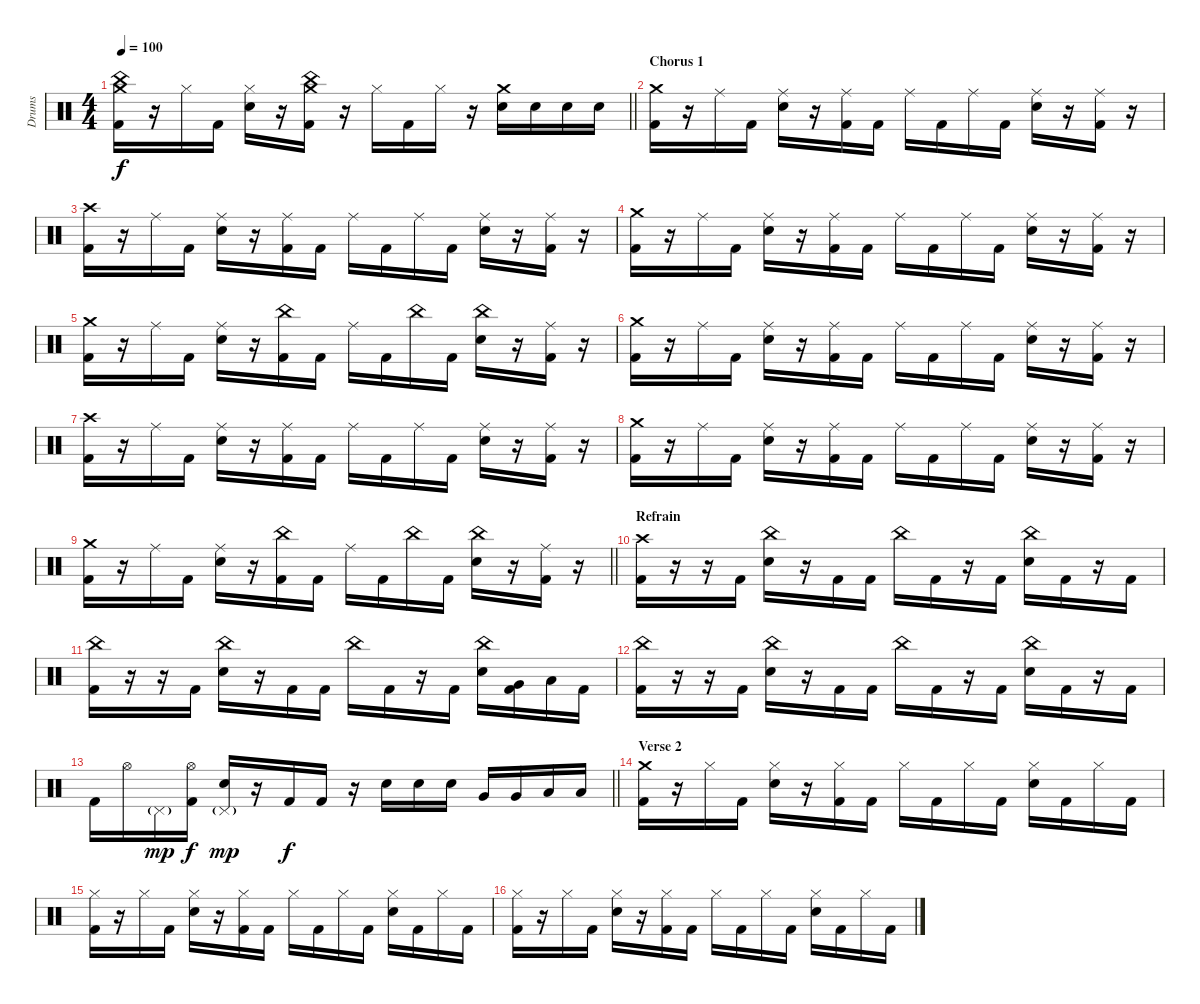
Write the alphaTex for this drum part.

\track ("Drums" "Drums") {instrument percussion}
\staff {score}
\articulation defaults
\ts (4 4)
\tempo 100
\clef neutral
\barLineRight lightlight
\ks c
("Crash medium (hit)" "China (hit)" "Kick (hit) 2").16{dy f} r.16 "Hi-Hat (closed)".16 "Kick (hit) 2".16 ("Hi-Hat (closed)" "Electric Snare (hit)").16 r.16 ("Crash medium (hit)" "China (hit)" "Kick (hit) 2").16 r.16 "Hi-Hat (closed)".16 "Kick (hit) 2".16 "Hi-Hat (closed)".16 r.16 ("Crash medium (hit)" "Electric Snare (hit)").16 "Electric Snare (hit)".16 "Electric Snare (hit)".16 "Electric Snare (hit)".16 |
\section ("" "Chorus 1")
("Crash medium (hit)" "Kick (hit) 2").16 r.16 "Ride (middle)".16 "Kick (hit) 2".16 ("Ride (middle)" "Electric Snare (hit)").16 r.16 ("Ride (middle)" "Kick (hit) 2").16 "Kick (hit) 2".16 "Ride (middle)".16 "Kick (hit) 2".16 "Ride (middle)".16 "Kick (hit) 2".16 ("Ride (middle)" "Electric Snare (hit)").16 r.16 ("Ride (middle)" "Kick (hit) 2").16 r.16 |
("Crash high (hit)" "Kick (hit) 2").16 r.16 "Ride (middle)".16 "Kick (hit) 2".16 ("Ride (middle)" "Electric Snare (hit)").16 r.16 ("Ride (middle)" "Kick (hit) 2").16 "Kick (hit) 2".16 "Ride (middle)".16 "Kick (hit) 2".16 "Ride (middle)".16 "Kick (hit) 2".16 ("Ride (middle)" "Electric Snare (hit)").16 r.16 ("Ride (middle)" "Kick (hit) 2").16 r.16 |
("Crash medium (hit)" "Kick (hit) 2").16 r.16 "Ride (middle)".16 "Kick (hit) 2".16 ("Ride (middle)" "Electric Snare (hit)").16 r.16 ("Ride (middle)" "Kick (hit) 2").16 "Kick (hit) 2".16 "Ride (middle)".16 "Kick (hit) 2".16 "Ride (middle)".16 "Kick (hit) 2".16 ("Ride (middle)" "Electric Snare (hit)").16 r.16 ("Ride (middle)" "Kick (hit) 2").16 r.16 |
("Crash medium (hit)" "Kick (hit) 2").16 r.16 "Ride (middle)".16 "Kick (hit) 2".16 ("Ride (middle)" "Electric Snare (hit)").16 r.16 ("China (hit)" "Kick (hit) 2").16 "Kick (hit) 2".16 "Ride (middle)".16 "Kick (hit) 2".16 "China (hit)".16 "Kick (hit) 2".16 ("China (hit)" "Electric Snare (hit)").16 r.16 ("Ride (middle)" "Kick (hit) 2").16 r.16 |
("Crash medium (hit)" "Kick (hit) 2").16 r.16 "Ride (middle)".16 "Kick (hit) 2".16 ("Ride (middle)" "Electric Snare (hit)").16 r.16 ("Ride (middle)" "Kick (hit) 2").16 "Kick (hit) 2".16 "Ride (middle)".16 "Kick (hit) 2".16 "Ride (middle)".16 "Kick (hit) 2".16 ("Ride (middle)" "Electric Snare (hit)").16 r.16 ("Ride (middle)" "Kick (hit) 2").16 r.16 |
("Crash high (hit)" "Kick (hit) 2").16 r.16 "Ride (middle)".16 "Kick (hit) 2".16 ("Ride (middle)" "Electric Snare (hit)").16 r.16 ("Ride (middle)" "Kick (hit) 2").16 "Kick (hit) 2".16 "Ride (middle)".16 "Kick (hit) 2".16 "Ride (middle)".16 "Kick (hit) 2".16 ("Ride (middle)" "Electric Snare (hit)").16 r.16 ("Ride (middle)" "Kick (hit) 2").16 r.16 |
("Crash medium (hit)" "Kick (hit) 2").16 r.16 "Ride (middle)".16 "Kick (hit) 2".16 ("Ride (middle)" "Electric Snare (hit)").16 r.16 ("Ride (middle)" "Kick (hit) 2").16 "Kick (hit) 2".16 "Ride (middle)".16 "Kick (hit) 2".16 "Ride (middle)".16 "Kick (hit) 2".16 ("Ride (middle)" "Electric Snare (hit)").16 r.16 ("Ride (middle)" "Kick (hit) 2").16 r.16 |
\barLineRight lightlight
("Crash medium (hit)" "Kick (hit) 2").16 r.16 "Ride (middle)".16 "Kick (hit) 2".16 ("Ride (middle)" "Electric Snare (hit)").16 r.16 ("China (hit)" "Kick (hit) 2").16 "Kick (hit) 2".16 "Ride (middle)".16 "Kick (hit) 2".16 "China (hit)".16 "Kick (hit) 2".16 ("China (hit)" "Electric Snare (hit)").16 r.16 ("Ride (middle)" "Kick (hit) 2").16 r.16 |
\section ("" "Refrain")
("Crash high (hit)" "Kick (hit) 2").16 r.16 r.16 "Kick (hit) 2".16 ("China (hit)" "Electric Snare (hit)").16 r.16 "Kick (hit) 2".16 "Kick (hit) 2".16 "China (hit)".16 "Kick (hit) 2".16 r.16 "Kick (hit) 2".16 ("China (hit)" "Electric Snare (hit)").16 "Kick (hit) 2".16 r.16 "Kick (hit) 2".16 |
("China (hit)" "Kick (hit) 2").16 r.16 r.16 "Kick (hit) 2".16 ("China (hit)" "Electric Snare (hit)").16 r.16 "Kick (hit) 2".16 "Kick (hit) 2".16 "China (hit)".16 "Kick (hit) 2".16 r.16 "Kick (hit) 2".16 ("China (hit)" "Electric Snare (hit)").16 ("Very Low Tom (hit)" "Kick (hit) 2").16 "Low Floor Tom (hit)".16 "Kick (hit) 2".16 |
("China (hit)" "Kick (hit) 2").16 r.16 r.16 "Kick (hit) 2".16 ("China (hit)" "Electric Snare (hit)").16 r.16 "Kick (hit) 2".16 "Kick (hit) 2".16 "China (hit)".16 "Kick (hit) 2".16 r.16 "Kick (hit) 2".16 ("China (hit)" "Electric Snare (hit)").16 "Kick (hit) 2".16 r.16 "Kick (hit) 2".16 |
\barLineRight lightlight "Kick (hit) 2".16 "Hi-Hat (open)".16 "Pedal Hi-Hat (hit)"{g}.16{dy mp}
("Hi-Hat (open)" "Kick (hit) 2").16{dy f} ("Pedal Hi-Hat (hit)"{g} "Electric Snare (hit)").16{dy mp} r.16 "Kick (hit) 2".16{dy f} "Kick (hit) 2".16 r.16 "Electric Snare (hit)".16 "Electric Snare (hit)".16 "Electric Snare (hit)".16 "Very Low Tom (hit)".16 "Very Low Tom (hit)".16 "Low Floor Tom (hit)".16 "Low Floor Tom (hit)".16 |
\section ("" "Verse 2")
("Crash medium (hit)" "Kick (hit) 2").16 r.16 "Hi-Hat (closed)".16 "Kick (hit) 2".16 ("Hi-Hat (closed)" "Electric Snare (hit)").16 r.16 ("Hi-Hat (closed)" "Kick (hit) 2").16 "Kick (hit) 2".16 "Hi-Hat (closed)".16 "Kick (hit) 2".16 "Hi-Hat (closed)".16 "Kick (hit) 2".16 ("Hi-Hat (closed)" "Electric Snare (hit)").16 "Kick (hit) 2".16 "Hi-Hat (closed)".16 "Kick (hit) 2".16 |
("Hi-Hat (closed)" "Kick (hit) 2").16 r.16 "Hi-Hat (closed)".16 "Kick (hit) 2".16 ("Hi-Hat (closed)" "Electric Snare (hit)").16 r.16 ("Hi-Hat (closed)" "Kick (hit) 2").16 "Kick (hit) 2".16 "Hi-Hat (closed)".16 "Kick (hit) 2".16 "Hi-Hat (closed)".16 "Kick (hit) 2".16 ("Hi-Hat (closed)" "Electric Snare (hit)").16 "Kick (hit) 2".16 "Hi-Hat (closed)".16 "Kick (hit) 2".16 |
("Hi-Hat (closed)" "Kick (hit) 2").16 r.16 "Hi-Hat (closed)".16 "Kick (hit) 2".16 ("Hi-Hat (closed)" "Electric Snare (hit)").16 r.16 ("Hi-Hat (closed)" "Kick (hit) 2").16 "Kick (hit) 2".16 "Hi-Hat (closed)".16 "Kick (hit) 2".16 "Hi-Hat (closed)".16 "Kick (hit) 2".16 ("Hi-Hat (closed)" "Electric Snare (hit)").16 "Kick (hit) 2".16 "Hi-Hat (closed)".16 "Kick (hit) 2".16
